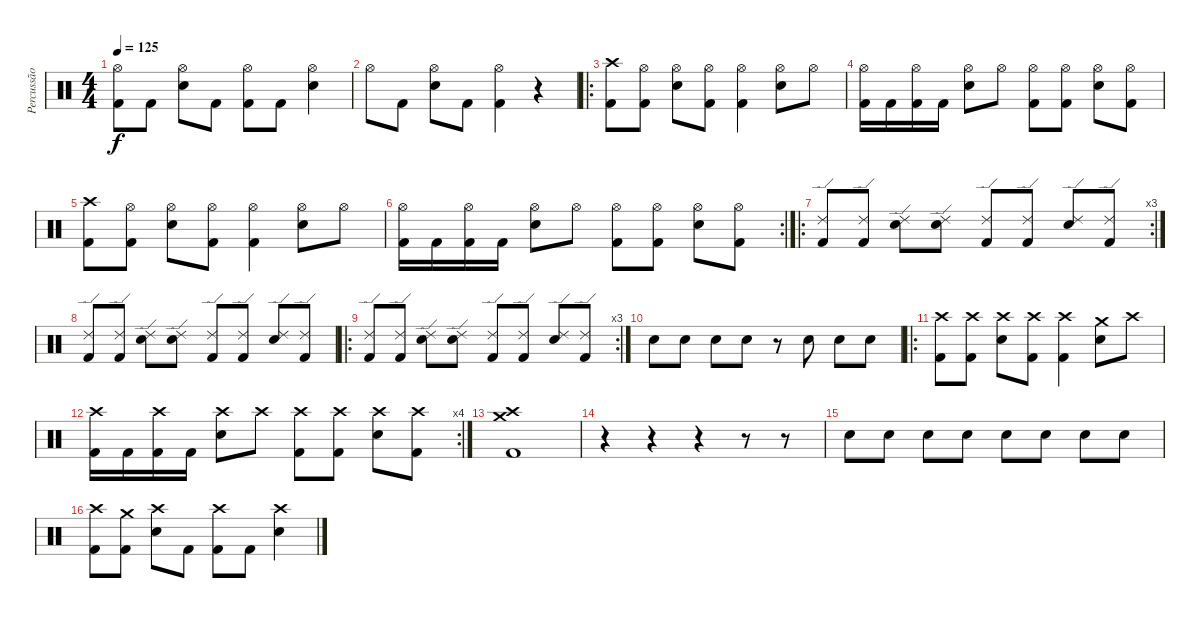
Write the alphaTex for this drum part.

\track ("Percussão" "Percussão") {instrument percussion}
\staff {score}
\articulation defaults
\ts (4 4)
\tempo 125
\clef neutral
\ks c
("Hi-Hat (open)" "Kick (hit) 2").8{dy f} "Kick (hit) 2".8 ("Hi-Hat (open)" "Electric Snare (hit)").8 "Kick (hit) 2".8 ("Hi-Hat (open)" "Kick (hit) 2").8 "Kick (hit) 2".8 ("Hi-Hat (open)" "Electric Snare (hit)").4 |
"Hi-Hat (open)".8 "Kick (hit) 2".8 ("Hi-Hat (open)" "Electric Snare (hit)").8 "Kick (hit) 2".8 ("Hi-Hat (open)" "Kick (hit) 2").4 r.4 |
\ro
("Crash high (hit)" "Kick (hit) 2").8 ("Hi-Hat (open)" "Kick (hit) 2").8 ("Hi-Hat (open)" "Electric Snare (hit)").8 ("Hi-Hat (open)" "Kick (hit) 2").8 ("Hi-Hat (open)" "Kick (hit) 2").4 ("Hi-Hat (open)" "Electric Snare (hit)").8 "Hi-Hat (open)".8 |
("Hi-Hat (open)" "Kick (hit) 2").16 "Kick (hit) 2".16 ("Hi-Hat (open)" "Kick (hit) 2").16 "Kick (hit) 2".16 ("Hi-Hat (open)" "Electric Snare (hit)").8 "Hi-Hat (open)".8 ("Hi-Hat (open)" "Kick (hit) 2").8 ("Hi-Hat (open)" "Kick (hit) 2").8 ("Hi-Hat (open)" "Electric Snare (hit)").8 ("Hi-Hat (open)" "Kick (hit) 2").8 |
("Crash high (hit)" "Kick (hit) 2").8 ("Hi-Hat (open)" "Kick (hit) 2").8 ("Hi-Hat (open)" "Electric Snare (hit)").8 ("Hi-Hat (open)" "Kick (hit) 2").8 ("Hi-Hat (open)" "Kick (hit) 2").4 ("Hi-Hat (open)" "Electric Snare (hit)").8 "Hi-Hat (open)".8 |
\rc 2
("Hi-Hat (open)" "Kick (hit) 2").16 "Kick (hit) 2".16 ("Hi-Hat (open)" "Kick (hit) 2").16 "Kick (hit) 2".16 ("Hi-Hat (open)" "Electric Snare (hit)").8 "Hi-Hat (open)".8 ("Hi-Hat (open)" "Kick (hit) 2").8 ("Hi-Hat (open)" "Kick (hit) 2").8 ("Hi-Hat (open)" "Electric Snare (hit)").8 ("Hi-Hat (open)" "Kick (hit) 2").8 |
\ro
\rc 3
("Ride (edge) 2" "Kick (hit) 2").8 ("Ride (edge) 2" "Kick (hit) 2").8 ("Ride (edge) 2" "Electric Snare (hit)").8 ("Ride (edge) 2" "Electric Snare (hit)").8 ("Ride (edge) 2" "Kick (hit) 2").8 ("Ride (edge) 2" "Kick (hit) 2").8 ("Ride (edge) 2" "Electric Snare (hit)").8 ("Ride (edge) 2" "Kick (hit) 2").8 |
("Ride (edge) 2" "Kick (hit) 2").8 ("Ride (edge) 2" "Kick (hit) 2").8 ("Ride (edge) 2" "Electric Snare (hit)").8 ("Ride (edge) 2" "Electric Snare (hit)").8 ("Ride (edge) 2" "Kick (hit) 2").8 ("Ride (edge) 2" "Kick (hit) 2").8 ("Ride (edge) 2" "Electric Snare (hit)").8 ("Ride (edge) 2" "Kick (hit) 2").8 |
\ro
\rc 3
("Ride (edge) 2" "Kick (hit) 2").8 ("Ride (edge) 2" "Kick (hit) 2").8 ("Ride (edge) 2" "Electric Snare (hit)").8 ("Ride (edge) 2" "Electric Snare (hit)").8 ("Ride (edge) 2" "Kick (hit) 2").8 ("Ride (edge) 2" "Kick (hit) 2").8 ("Ride (edge) 2" "Electric Snare (hit)").8 ("Ride (edge) 2" "Kick (hit) 2").8 |
"Electric Snare (hit)".8 "Electric Snare (hit)".8 "Electric Snare (hit)".8 "Electric Snare (hit)".8 r.8 "Electric Snare (hit)".8 "Electric Snare (hit)".8 "Electric Snare (hit)".8 |
\ro
("Crash high (hit)" "Kick (hit) 2").8 ("Crash high (hit)" "Kick (hit) 2").8 ("Crash high (hit)" "Electric Snare (hit)").8 ("Crash high (hit)" "Kick (hit) 2").8 ("Crash high (hit)" "Kick (hit) 2").4 ("Crash medium (hit)" "Electric Snare (hit)").8 "Crash high (hit)".8 |
\rc 4
("Crash high (hit)" "Kick (hit) 2").16 "Kick (hit) 2".16 ("Crash high (hit)" "Kick (hit) 2").16 "Kick (hit) 2".16 ("Crash high (hit)" "Electric Snare (hit)").8 "Crash high (hit)".8 ("Crash high (hit)" "Kick (hit) 2").8 ("Crash high (hit)" "Kick (hit) 2").8 ("Crash high (hit)" "Electric Snare (hit)").8 ("Crash high (hit)" "Kick (hit) 2").8 |
("Crash high (hit)" "Crash medium (hit)" "Kick (hit) 2").1 |
r.4 r.4 r.4 r.8 r.8 |
"Electric Snare (hit)".8 "Electric Snare (hit)".8 "Electric Snare (hit)".8 "Electric Snare (hit)".8 "Electric Snare (hit)".8 "Electric Snare (hit)".8 "Electric Snare (hit)".8 "Electric Snare (hit)".8 |
("Crash high (hit)" "Kick (hit) 2").8 ("Crash medium (hit)" "Kick (hit) 2").8 ("Crash high (hit)" "Electric Snare (hit)").8 "Kick (hit) 2".8 ("Crash high (hit)" "Kick (hit) 2").8 "Kick (hit) 2".8 ("Crash high (hit)" "Electric Snare (hit)").4
